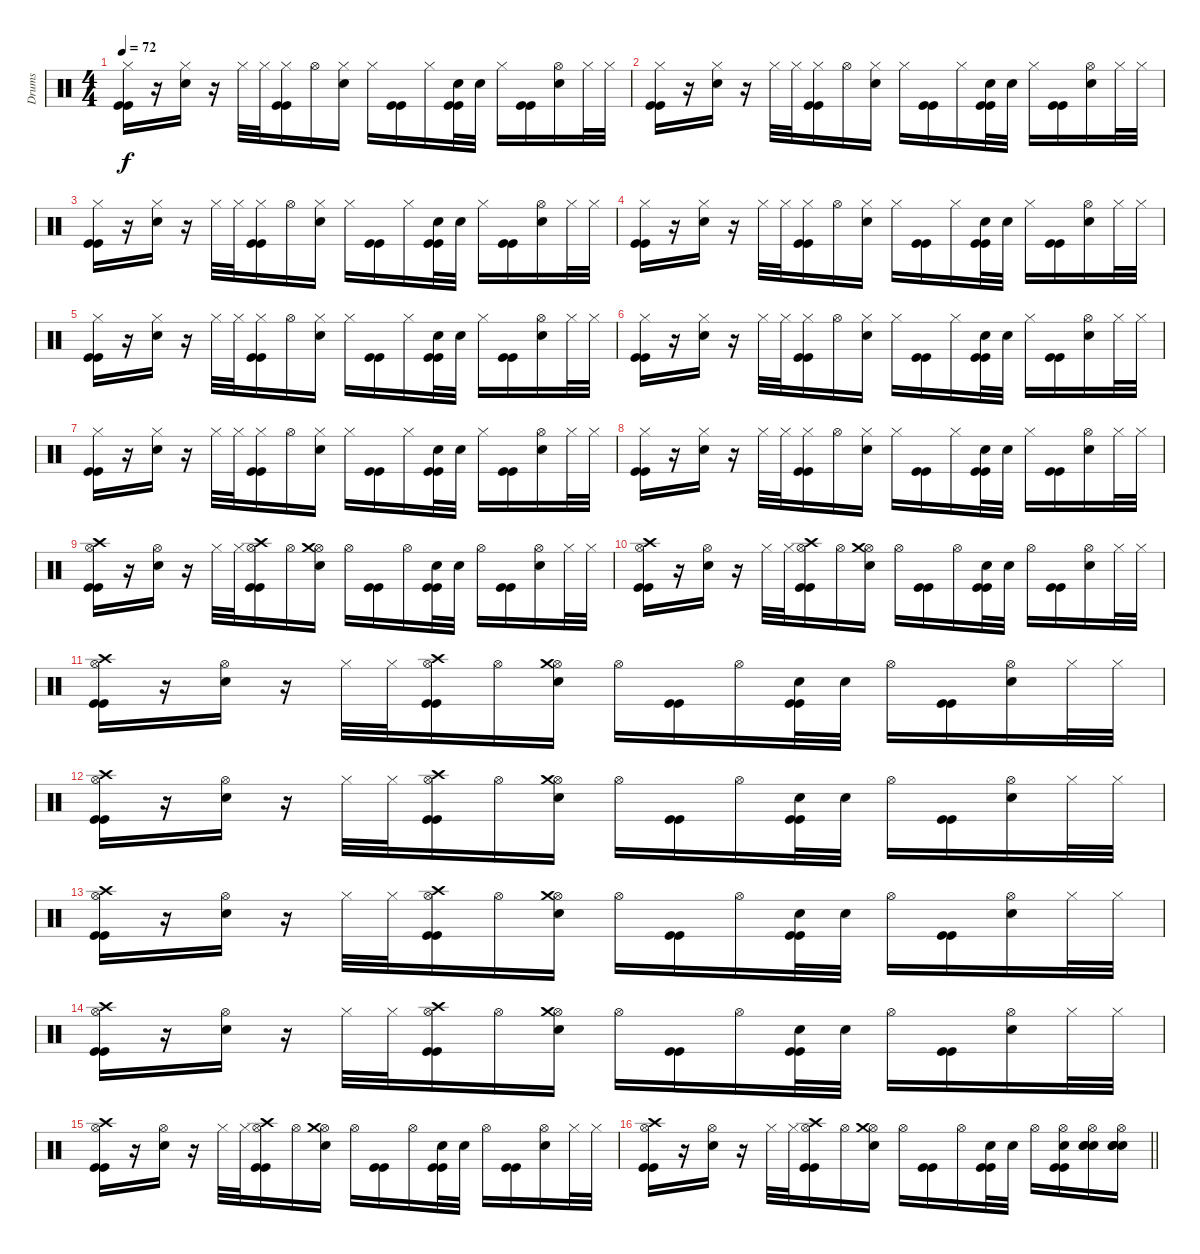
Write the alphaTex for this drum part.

\track ("Drums" "Drums") {instrument percussion}
\staff {score}
\articulation defaults
\ts (4 4)
\tempo 72
\clef neutral
\ks c
("Hi-Hat (closed)" "Kick (hit)" "Kick (hit)").16{dy f} r.16 ("Hi-Hat (closed)" "Snare (hit) 2").16 r.16 "Hi-Hat (closed)".32 "Hi-Hat (closed)".32 ("Hi-Hat (closed)" "Kick (hit)" "Kick (hit)").16 "Hi-Hat (open)".16 ("Hi-Hat (closed)" "Snare (hit) 2").16 "Hi-Hat (closed)".16 ("Kick (hit)" "Kick (hit)").16 "Hi-Hat (closed)".16 ("Snare (hit) 2" "Kick (hit)" "Kick (hit)").32 "Snare (hit) 2".32 "Hi-Hat (closed)".16 ("Kick (hit)" "Kick (hit)").16 ("Hi-Hat (open)" "Snare (hit) 2").16 "Hi-Hat (closed)".32 "Hi-Hat (closed)".32 |
("Hi-Hat (closed)" "Kick (hit)" "Kick (hit)").16 r.16 ("Hi-Hat (closed)" "Snare (hit) 2").16 r.16 "Hi-Hat (closed)".32 "Hi-Hat (closed)".32 ("Hi-Hat (closed)" "Kick (hit)" "Kick (hit)").16 "Hi-Hat (open)".16 ("Hi-Hat (closed)" "Snare (hit) 2").16 "Hi-Hat (closed)".16 ("Kick (hit)" "Kick (hit)").16 "Hi-Hat (closed)".16 ("Snare (hit) 2" "Kick (hit)" "Kick (hit)").32 "Snare (hit) 2".32 "Hi-Hat (closed)".16 ("Kick (hit)" "Kick (hit)").16 ("Hi-Hat (open)" "Snare (hit) 2").16 "Hi-Hat (closed)".32 "Hi-Hat (closed)".32 |
("Hi-Hat (closed)" "Kick (hit)" "Kick (hit)").16 r.16 ("Hi-Hat (closed)" "Snare (hit) 2").16 r.16 "Hi-Hat (closed)".32 "Hi-Hat (closed)".32 ("Hi-Hat (closed)" "Kick (hit)" "Kick (hit)").16 "Hi-Hat (open)".16 ("Hi-Hat (closed)" "Snare (hit) 2").16 "Hi-Hat (closed)".16 ("Kick (hit)" "Kick (hit)").16 "Hi-Hat (closed)".16 ("Snare (hit) 2" "Kick (hit)" "Kick (hit)").32 "Snare (hit) 2".32 "Hi-Hat (closed)".16 ("Kick (hit)" "Kick (hit)").16 ("Hi-Hat (open)" "Snare (hit) 2").16 "Hi-Hat (closed)".32 "Hi-Hat (closed)".32 |
("Hi-Hat (closed)" "Kick (hit)" "Kick (hit)").16 r.16 ("Hi-Hat (closed)" "Snare (hit) 2").16 r.16 "Hi-Hat (closed)".32 "Hi-Hat (closed)".32 ("Hi-Hat (closed)" "Kick (hit)" "Kick (hit)").16 "Hi-Hat (open)".16 ("Hi-Hat (closed)" "Snare (hit) 2").16 "Hi-Hat (closed)".16 ("Kick (hit)" "Kick (hit)").16 "Hi-Hat (closed)".16 ("Snare (hit) 2" "Kick (hit)" "Kick (hit)").32 "Snare (hit) 2".32 "Hi-Hat (closed)".16 ("Kick (hit)" "Kick (hit)").16 ("Hi-Hat (open)" "Snare (hit) 2").16 "Hi-Hat (closed)".32 "Hi-Hat (closed)".32 |
("Hi-Hat (closed)" "Kick (hit)" "Kick (hit)").16 r.16 ("Hi-Hat (closed)" "Snare (hit) 2").16 r.16 "Hi-Hat (closed)".32 "Hi-Hat (closed)".32 ("Hi-Hat (closed)" "Kick (hit)" "Kick (hit)").16 "Hi-Hat (open)".16 ("Hi-Hat (closed)" "Snare (hit) 2").16 "Hi-Hat (closed)".16 ("Kick (hit)" "Kick (hit)").16 "Hi-Hat (closed)".16 ("Snare (hit) 2" "Kick (hit)" "Kick (hit)").32 "Snare (hit) 2".32 "Hi-Hat (closed)".16 ("Kick (hit)" "Kick (hit)").16 ("Hi-Hat (open)" "Snare (hit) 2").16 "Hi-Hat (closed)".32 "Hi-Hat (closed)".32 |
("Hi-Hat (closed)" "Kick (hit)" "Kick (hit)").16 r.16 ("Hi-Hat (closed)" "Snare (hit) 2").16 r.16 "Hi-Hat (closed)".32 "Hi-Hat (closed)".32 ("Hi-Hat (closed)" "Kick (hit)" "Kick (hit)").16 "Hi-Hat (open)".16 ("Hi-Hat (closed)" "Snare (hit) 2").16 "Hi-Hat (closed)".16 ("Kick (hit)" "Kick (hit)").16 "Hi-Hat (closed)".16 ("Snare (hit) 2" "Kick (hit)" "Kick (hit)").32 "Snare (hit) 2".32 "Hi-Hat (closed)".16 ("Kick (hit)" "Kick (hit)").16 ("Hi-Hat (open)" "Snare (hit) 2").16 "Hi-Hat (closed)".32 "Hi-Hat (closed)".32 |
("Hi-Hat (closed)" "Kick (hit)" "Kick (hit)").16 r.16 ("Hi-Hat (closed)" "Snare (hit) 2").16 r.16 "Hi-Hat (closed)".32 "Hi-Hat (closed)".32 ("Hi-Hat (closed)" "Kick (hit)" "Kick (hit)").16 "Hi-Hat (open)".16 ("Hi-Hat (closed)" "Snare (hit) 2").16 "Hi-Hat (closed)".16 ("Kick (hit)" "Kick (hit)").16 "Hi-Hat (closed)".16 ("Snare (hit) 2" "Kick (hit)" "Kick (hit)").32 "Snare (hit) 2".32 "Hi-Hat (closed)".16 ("Kick (hit)" "Kick (hit)").16 ("Hi-Hat (open)" "Snare (hit) 2").16 "Hi-Hat (closed)".32 "Hi-Hat (closed)".32 |
("Hi-Hat (closed)" "Kick (hit)" "Kick (hit)").16 r.16 ("Hi-Hat (closed)" "Snare (hit) 2").16 r.16 "Hi-Hat (closed)".32 "Hi-Hat (closed)".32 ("Hi-Hat (closed)" "Kick (hit)" "Kick (hit)").16 "Hi-Hat (open)".16 ("Hi-Hat (closed)" "Snare (hit) 2").16 "Hi-Hat (closed)".16 ("Kick (hit)" "Kick (hit)").16 "Hi-Hat (closed)".16 ("Snare (hit) 2" "Kick (hit)" "Kick (hit)").32 "Snare (hit) 2".32 "Hi-Hat (closed)".16 ("Kick (hit)" "Kick (hit)").16 ("Hi-Hat (open)" "Snare (hit) 2").16 "Hi-Hat (closed)".32 "Hi-Hat (closed)".32 |
("Hi-Hat (open)" "Crash high (hit)" "Kick (hit)" "Kick (hit)").16 r.16 ("Hi-Hat (open)" "Snare (hit) 2").16 r.16 "Hi-Hat (closed)".32 "Hi-Hat (closed)".32 ("Hi-Hat (open)" "Crash high (hit)" "Kick (hit)" "Kick (hit)").16 "Hi-Hat (open)".16 ("Hi-Hat (open)" "Crash medium (hit)" "Snare (hit) 2").16 "Hi-Hat (open)".16 ("Kick (hit)" "Kick (hit)").16 "Hi-Hat (open)".16 ("Snare (hit) 2" "Kick (hit)" "Kick (hit)").32 "Snare (hit) 2".32 "Hi-Hat (open)".16 ("Kick (hit)" "Kick (hit)").16 ("Hi-Hat (open)" "Snare (hit) 2").16 "Hi-Hat (closed)".32 "Hi-Hat (closed)".32 |
("Hi-Hat (open)" "Crash high (hit)" "Kick (hit)" "Kick (hit)").16 r.16 ("Hi-Hat (open)" "Snare (hit) 2").16 r.16 "Hi-Hat (closed)".32 "Hi-Hat (closed)".32 ("Hi-Hat (open)" "Crash high (hit)" "Kick (hit)" "Kick (hit)").16 "Hi-Hat (open)".16 ("Hi-Hat (open)" "Crash medium (hit)" "Snare (hit) 2").16 "Hi-Hat (open)".16 ("Kick (hit)" "Kick (hit)").16 "Hi-Hat (open)".16 ("Snare (hit) 2" "Kick (hit)" "Kick (hit)").32 "Snare (hit) 2".32 "Hi-Hat (open)".16 ("Kick (hit)" "Kick (hit)").16 ("Hi-Hat (open)" "Snare (hit) 2").16 "Hi-Hat (closed)".32 "Hi-Hat (closed)".32 |
("Hi-Hat (open)" "Crash high (hit)" "Kick (hit)" "Kick (hit)").16 r.16 ("Hi-Hat (open)" "Snare (hit) 2").16 r.16 "Hi-Hat (closed)".32 "Hi-Hat (closed)".32 ("Hi-Hat (open)" "Crash high (hit)" "Kick (hit)" "Kick (hit)").16 "Hi-Hat (open)".16 ("Hi-Hat (open)" "Crash medium (hit)" "Snare (hit) 2").16 "Hi-Hat (open)".16 ("Kick (hit)" "Kick (hit)").16 "Hi-Hat (open)".16 ("Snare (hit) 2" "Kick (hit)" "Kick (hit)").32 "Snare (hit) 2".32 "Hi-Hat (open)".16 ("Kick (hit)" "Kick (hit)").16 ("Hi-Hat (open)" "Snare (hit) 2").16 "Hi-Hat (closed)".32 "Hi-Hat (closed)".32 |
("Hi-Hat (open)" "Crash high (hit)" "Kick (hit)" "Kick (hit)").16 r.16 ("Hi-Hat (open)" "Snare (hit) 2").16 r.16 "Hi-Hat (closed)".32 "Hi-Hat (closed)".32 ("Hi-Hat (open)" "Crash high (hit)" "Kick (hit)" "Kick (hit)").16 "Hi-Hat (open)".16 ("Hi-Hat (open)" "Crash medium (hit)" "Snare (hit) 2").16 "Hi-Hat (open)".16 ("Kick (hit)" "Kick (hit)").16 "Hi-Hat (open)".16 ("Snare (hit) 2" "Kick (hit)" "Kick (hit)").32 "Snare (hit) 2".32 "Hi-Hat (open)".16 ("Kick (hit)" "Kick (hit)").16 ("Hi-Hat (open)" "Snare (hit) 2").16 "Hi-Hat (closed)".32 "Hi-Hat (closed)".32 |
("Hi-Hat (open)" "Crash high (hit)" "Kick (hit)" "Kick (hit)").16 r.16 ("Hi-Hat (open)" "Snare (hit) 2").16 r.16 "Hi-Hat (closed)".32 "Hi-Hat (closed)".32 ("Hi-Hat (open)" "Crash high (hit)" "Kick (hit)" "Kick (hit)").16 "Hi-Hat (open)".16 ("Hi-Hat (open)" "Crash medium (hit)" "Snare (hit) 2").16 "Hi-Hat (open)".16 ("Kick (hit)" "Kick (hit)").16 "Hi-Hat (open)".16 ("Snare (hit) 2" "Kick (hit)" "Kick (hit)").32 "Snare (hit) 2".32 "Hi-Hat (open)".16 ("Kick (hit)" "Kick (hit)").16 ("Hi-Hat (open)" "Snare (hit) 2").16 "Hi-Hat (closed)".32 "Hi-Hat (closed)".32 |
("Hi-Hat (open)" "Crash high (hit)" "Kick (hit)" "Kick (hit)").16 r.16 ("Hi-Hat (open)" "Snare (hit) 2").16 r.16 "Hi-Hat (closed)".32 "Hi-Hat (closed)".32 ("Hi-Hat (open)" "Crash high (hit)" "Kick (hit)" "Kick (hit)").16 "Hi-Hat (open)".16 ("Hi-Hat (open)" "Crash medium (hit)" "Snare (hit) 2").16 "Hi-Hat (open)".16 ("Kick (hit)" "Kick (hit)").16 "Hi-Hat (open)".16 ("Snare (hit) 2" "Kick (hit)" "Kick (hit)").32 "Snare (hit) 2".32 "Hi-Hat (open)".16 ("Kick (hit)" "Kick (hit)").16 ("Hi-Hat (open)" "Snare (hit) 2").16 "Hi-Hat (closed)".32 "Hi-Hat (closed)".32 |
("Hi-Hat (open)" "Crash high (hit)" "Kick (hit)" "Kick (hit)").16 r.16 ("Hi-Hat (open)" "Snare (hit) 2").16 r.16 "Hi-Hat (closed)".32 "Hi-Hat (closed)".32 ("Hi-Hat (open)" "Crash high (hit)" "Kick (hit)" "Kick (hit)").16 "Hi-Hat (open)".16 ("Hi-Hat (open)" "Crash medium (hit)" "Snare (hit) 2").16 "Hi-Hat (open)".16 ("Kick (hit)" "Kick (hit)").16 "Hi-Hat (open)".16 ("Snare (hit) 2" "Kick (hit)" "Kick (hit)").32 "Snare (hit) 2".32 "Hi-Hat (open)".16 ("Kick (hit)" "Kick (hit)").16 ("Hi-Hat (open)" "Snare (hit) 2").16 "Hi-Hat (closed)".32 "Hi-Hat (closed)".32 |
\barLineRight lightlight
("Hi-Hat (open)" "Crash high (hit)" "Kick (hit)" "Kick (hit)").16 r.16 ("Hi-Hat (open)" "Snare (hit) 2").16 r.16 "Hi-Hat (closed)".32 "Hi-Hat (closed)".32 ("Hi-Hat (open)" "Crash high (hit)" "Kick (hit)" "Kick (hit)").16 "Hi-Hat (open)".16 ("Hi-Hat (open)" "Crash medium (hit)" "Snare (hit) 2").16 "Hi-Hat (open)".16 ("Kick (hit)" "Kick (hit)").16 "Hi-Hat (open)".16 ("Snare (hit) 2" "Kick (hit)" "Kick (hit)").32 "Snare (hit) 2".32 "Hi-Hat (open)".16 ("Hi-Hat (open)" "Snare (hit) 2" "Kick (hit)" "Kick (hit)").16 ("Hi-Hat (open)" "Snare (hit) 2" "Snare (hit) 2" "Snare (hit) 2").16 ("Hi-Hat (open)" "Snare (hit) 2" "Snare (hit) 2" "Snare (hit) 2").16
